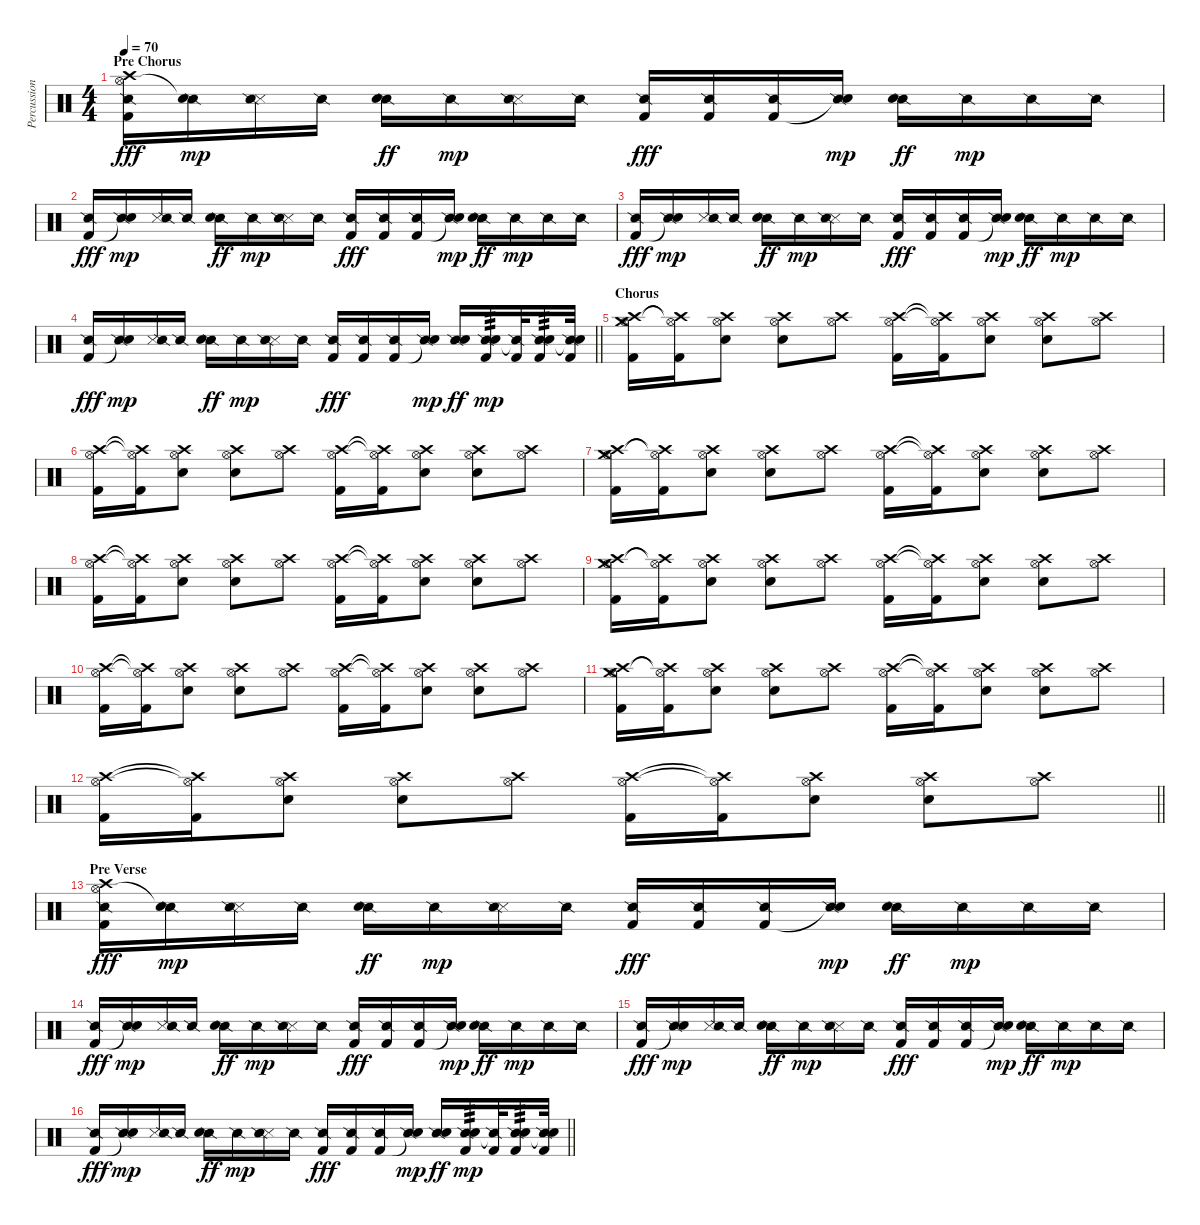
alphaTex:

\track ("Percussion" "Percussion") {instrument percussion}
\staff {score}
\articulation defaults
\ts (4 4)
\section ("" "Pre Chorus")
\tempo 70
\clef neutral
\ks c
("Crash high (hit)" "Hi-Hat (open)" "Snare (side stick) 2" "Kick (hit) 2").16{dy fff} ("Snare (side stick) 2" "Snare (hit)"{t}).16{dy mp} ("Snare (side stick) 3" "Snare (side stick) 2").16 "Snare (side stick) 2".16 ("Snare (side stick) 2" "Electric Snare (hit)").16{dy ff} "Snare (side stick) 2".16{dy mp} ("Snare (side stick) 3" "Snare (side stick) 2").16 "Snare (side stick) 2".16 ("Snare (side stick) 2" "Kick (hit) 2").16{dy fff} ("Snare (side stick) 2" "Kick (hit) 2").16 ("Snare (side stick) 2" "Kick (hit) 2").16 ("Snare (side stick) 2" "Snare (hit)"{t}).16{dy mp} ("Snare (side stick) 2" "Electric Snare (hit)").16{dy ff} "Snare (side stick) 2".16{dy mp} "Snare (side stick) 2".16 "Snare (side stick) 2".16 |
("Snare (side stick) 2" "Kick (hit) 2").16{dy fff} ("Snare (side stick) 2" "Snare (hit)"{t}).16{dy mp} ("Snare (side stick) 3" "Snare (side stick) 2").16 "Snare (side stick) 2".16 ("Snare (side stick) 2" "Electric Snare (hit)").16{dy ff} "Snare (side stick) 2".16{dy mp} ("Snare (side stick) 3" "Snare (side stick) 2").16 "Snare (side stick) 2".16 ("Snare (side stick) 2" "Kick (hit) 2").16{dy fff} ("Snare (side stick) 2" "Kick (hit) 2").16 ("Snare (side stick) 2" "Kick (hit) 2").16 ("Snare (side stick) 2" "Snare (hit)"{t}).16{dy mp} ("Snare (side stick) 2" "Electric Snare (hit)").16{dy ff} "Snare (side stick) 2".16{dy mp} "Snare (side stick) 2".16 "Snare (side stick) 2".16 |
("Snare (side stick) 2" "Kick (hit) 2").16{dy fff} ("Snare (side stick) 2" "Snare (hit)"{t}).16{dy mp} ("Snare (side stick) 3" "Snare (side stick) 2").16 "Snare (side stick) 2".16 ("Snare (side stick) 2" "Electric Snare (hit)").16{dy ff} "Snare (side stick) 2".16{dy mp} ("Snare (side stick) 3" "Snare (side stick) 2").16 "Snare (side stick) 2".16 ("Snare (side stick) 2" "Kick (hit) 2").16{dy fff} ("Snare (side stick) 2" "Kick (hit) 2").16 ("Snare (side stick) 2" "Kick (hit) 2").16 ("Snare (side stick) 2" "Snare (hit)"{t}).16{dy mp} ("Snare (side stick) 2" "Electric Snare (hit)").16{dy ff} "Snare (side stick) 2".16{dy mp} "Snare (side stick) 2".16 "Snare (side stick) 2".16 |
\barLineRight lightlight
("Snare (side stick) 2" "Kick (hit) 2").16{dy fff} ("Snare (side stick) 2" "Snare (hit)"{t}).16{dy mp} ("Snare (side stick) 3" "Snare (side stick) 2").16 "Snare (side stick) 2".16 ("Snare (side stick) 2" "Electric Snare (hit)").16{dy ff} "Snare (side stick) 2".16{dy mp} ("Snare (side stick) 3" "Snare (side stick) 2").16 "Snare (side stick) 2".16 ("Snare (side stick) 2" "Kick (hit) 2").16{dy fff} ("Snare (side stick) 2" "Kick (hit) 2").16 ("Snare (side stick) 2" "Kick (hit) 2").16 ("Snare (side stick) 2" "Snare (hit)"{t}).16{dy mp} ("Snare (side stick) 2" "Electric Snare (hit)").16{dy ff} ("Snare (side stick) 2" "Electric Snare (hit)" "Kick (hit) 2").16{tp 3 dy mp} ("Snare (side stick) 2"{t} "Kick (hit) 2").32 ("Snare (side stick) 2" "Electric Snare (hit)" "Kick (hit) 2").16{tp 3} ("Snare (side stick) 2"{t} "Electric Snare (hit)" "Kick (hit) 2").32 |
\section ("" "Chorus")
("Crash medium (hit)" "Crash high (hit)" "Hi-Hat (open)" "Kick (hit) 2").16 ("Crash high (hit)"{t} "Hi-Hat (open)"{t} "Kick (hit) 2").16 ("Crash high (hit)" "Hi-Hat (open)" "Electric Snare (hit)").8 ("Crash high (hit)" "Hi-Hat (open)" "Electric Snare (hit)").8 ("Crash high (hit)" "Hi-Hat (open)").8 ("Crash high (hit)" "Hi-Hat (open)" "Kick (hit) 2").16 ("Crash high (hit)"{t} "Hi-Hat (open)"{t} "Kick (hit) 2").16 ("Crash high (hit)" "Hi-Hat (open)" "Electric Snare (hit)").8 ("Crash high (hit)" "Hi-Hat (open)" "Electric Snare (hit)").8 ("Crash high (hit)" "Hi-Hat (open)").8 |
("Crash high (hit)" "Hi-Hat (open)" "Kick (hit) 2").16 ("Crash high (hit)"{t} "Hi-Hat (open)"{t} "Kick (hit) 2").16 ("Crash high (hit)" "Hi-Hat (open)" "Electric Snare (hit)").8 ("Crash high (hit)" "Hi-Hat (open)" "Electric Snare (hit)").8 ("Crash high (hit)" "Hi-Hat (open)").8 ("Crash high (hit)" "Hi-Hat (open)" "Kick (hit) 2").16 ("Crash high (hit)"{t} "Hi-Hat (open)"{t} "Kick (hit) 2").16 ("Crash high (hit)" "Hi-Hat (open)" "Electric Snare (hit)").8 ("Crash high (hit)" "Hi-Hat (open)" "Electric Snare (hit)").8 ("Crash high (hit)" "Hi-Hat (open)").8 |
("Crash medium (hit)" "Crash high (hit)" "Hi-Hat (open)" "Kick (hit) 2").16 ("Crash high (hit)"{t} "Hi-Hat (open)"{t} "Kick (hit) 2").16 ("Crash high (hit)" "Hi-Hat (open)" "Electric Snare (hit)").8 ("Crash high (hit)" "Hi-Hat (open)" "Electric Snare (hit)").8 ("Crash high (hit)" "Hi-Hat (open)").8 ("Crash high (hit)" "Hi-Hat (open)" "Kick (hit) 2").16 ("Crash high (hit)"{t} "Hi-Hat (open)"{t} "Kick (hit) 2").16 ("Crash high (hit)" "Hi-Hat (open)" "Electric Snare (hit)").8 ("Crash high (hit)" "Hi-Hat (open)" "Electric Snare (hit)").8 ("Crash high (hit)" "Hi-Hat (open)").8 |
("Crash high (hit)" "Hi-Hat (open)" "Kick (hit) 2").16 ("Crash high (hit)"{t} "Hi-Hat (open)"{t} "Kick (hit) 2").16 ("Crash high (hit)" "Hi-Hat (open)" "Electric Snare (hit)").8 ("Crash high (hit)" "Hi-Hat (open)" "Electric Snare (hit)").8 ("Crash high (hit)" "Hi-Hat (open)").8 ("Crash high (hit)" "Hi-Hat (open)" "Kick (hit) 2").16 ("Crash high (hit)"{t} "Hi-Hat (open)"{t} "Kick (hit) 2").16 ("Crash high (hit)" "Hi-Hat (open)" "Electric Snare (hit)").8 ("Crash high (hit)" "Hi-Hat (open)" "Electric Snare (hit)").8 ("Crash high (hit)" "Hi-Hat (open)").8 |
("Crash medium (hit)" "Crash high (hit)" "Hi-Hat (open)" "Kick (hit) 2").16 ("Crash high (hit)"{t} "Hi-Hat (open)"{t} "Kick (hit) 2").16 ("Crash high (hit)" "Hi-Hat (open)" "Electric Snare (hit)").8 ("Crash high (hit)" "Hi-Hat (open)" "Electric Snare (hit)").8 ("Crash high (hit)" "Hi-Hat (open)").8 ("Crash high (hit)" "Hi-Hat (open)" "Kick (hit) 2").16 ("Crash high (hit)"{t} "Hi-Hat (open)"{t} "Kick (hit) 2").16 ("Crash high (hit)" "Hi-Hat (open)" "Electric Snare (hit)").8 ("Crash high (hit)" "Hi-Hat (open)" "Electric Snare (hit)").8 ("Crash high (hit)" "Hi-Hat (open)").8 |
("Crash high (hit)" "Hi-Hat (open)" "Kick (hit) 2").16 ("Crash high (hit)"{t} "Hi-Hat (open)"{t} "Kick (hit) 2").16 ("Crash high (hit)" "Hi-Hat (open)" "Electric Snare (hit)").8 ("Crash high (hit)" "Hi-Hat (open)" "Electric Snare (hit)").8 ("Crash high (hit)" "Hi-Hat (open)").8 ("Crash high (hit)" "Hi-Hat (open)" "Kick (hit) 2").16 ("Crash high (hit)"{t} "Hi-Hat (open)"{t} "Kick (hit) 2").16 ("Crash high (hit)" "Hi-Hat (open)" "Electric Snare (hit)").8 ("Crash high (hit)" "Hi-Hat (open)" "Electric Snare (hit)").8 ("Crash high (hit)" "Hi-Hat (open)").8 |
("Crash medium (hit)" "Crash high (hit)" "Hi-Hat (open)" "Kick (hit) 2").16 ("Crash high (hit)"{t} "Hi-Hat (open)"{t} "Kick (hit) 2").16 ("Crash high (hit)" "Hi-Hat (open)" "Electric Snare (hit)").8 ("Crash high (hit)" "Hi-Hat (open)" "Electric Snare (hit)").8 ("Crash high (hit)" "Hi-Hat (open)").8 ("Crash high (hit)" "Hi-Hat (open)" "Kick (hit) 2").16 ("Crash high (hit)"{t} "Hi-Hat (open)"{t} "Kick (hit) 2").16 ("Crash high (hit)" "Hi-Hat (open)" "Electric Snare (hit)").8 ("Crash high (hit)" "Hi-Hat (open)" "Electric Snare (hit)").8 ("Crash high (hit)" "Hi-Hat (open)").8 |
\barLineRight lightlight
("Crash high (hit)" "Hi-Hat (open)" "Kick (hit) 2").16 ("Crash high (hit)"{t} "Hi-Hat (open)"{t} "Kick (hit) 2").16 ("Crash high (hit)" "Hi-Hat (open)" "Electric Snare (hit)").8 ("Crash high (hit)" "Hi-Hat (open)" "Electric Snare (hit)").8 ("Crash high (hit)" "Hi-Hat (open)").8 ("Crash high (hit)" "Hi-Hat (open)" "Kick (hit) 2").16 ("Crash high (hit)"{t} "Hi-Hat (open)"{t} "Kick (hit) 2").16 ("Crash high (hit)" "Hi-Hat (open)" "Electric Snare (hit)").8 ("Crash high (hit)" "Hi-Hat (open)" "Electric Snare (hit)").8 ("Crash high (hit)" "Hi-Hat (open)").8 |
\section ("" "Pre Verse")
("Crash high (hit)" "Hi-Hat (open)" "Snare (side stick) 2" "Kick (hit) 2").16{dy fff} ("Snare (side stick) 2" "Snare (hit)"{t}).16{dy mp} ("Snare (side stick) 3" "Snare (side stick) 2").16 "Snare (side stick) 2".16 ("Snare (side stick) 2" "Electric Snare (hit)").16{dy ff} "Snare (side stick) 2".16{dy mp} ("Snare (side stick) 3" "Snare (side stick) 2").16 "Snare (side stick) 2".16 ("Snare (side stick) 2" "Kick (hit) 2").16{dy fff} ("Snare (side stick) 2" "Kick (hit) 2").16 ("Snare (side stick) 2" "Kick (hit) 2").16 ("Snare (side stick) 2" "Snare (hit)"{t}).16{dy mp} ("Snare (side stick) 2" "Electric Snare (hit)").16{dy ff} "Snare (side stick) 2".16{dy mp} "Snare (side stick) 2".16 "Snare (side stick) 2".16 |
("Snare (side stick) 2" "Kick (hit) 2").16{dy fff} ("Snare (side stick) 2" "Snare (hit)"{t}).16{dy mp} ("Snare (side stick) 3" "Snare (side stick) 2").16 "Snare (side stick) 2".16 ("Snare (side stick) 2" "Electric Snare (hit)").16{dy ff} "Snare (side stick) 2".16{dy mp} ("Snare (side stick) 3" "Snare (side stick) 2").16 "Snare (side stick) 2".16 ("Snare (side stick) 2" "Kick (hit) 2").16{dy fff} ("Snare (side stick) 2" "Kick (hit) 2").16 ("Snare (side stick) 2" "Kick (hit) 2").16 ("Snare (side stick) 2" "Snare (hit)"{t}).16{dy mp} ("Snare (side stick) 2" "Electric Snare (hit)").16{dy ff} "Snare (side stick) 2".16{dy mp} "Snare (side stick) 2".16 "Snare (side stick) 2".16 |
("Snare (side stick) 2" "Kick (hit) 2").16{dy fff} ("Snare (side stick) 2" "Snare (hit)"{t}).16{dy mp} ("Snare (side stick) 3" "Snare (side stick) 2").16 "Snare (side stick) 2".16 ("Snare (side stick) 2" "Electric Snare (hit)").16{dy ff} "Snare (side stick) 2".16{dy mp} ("Snare (side stick) 3" "Snare (side stick) 2").16 "Snare (side stick) 2".16 ("Snare (side stick) 2" "Kick (hit) 2").16{dy fff} ("Snare (side stick) 2" "Kick (hit) 2").16 ("Snare (side stick) 2" "Kick (hit) 2").16 ("Snare (side stick) 2" "Snare (hit)"{t}).16{dy mp} ("Snare (side stick) 2" "Electric Snare (hit)").16{dy ff} "Snare (side stick) 2".16{dy mp} "Snare (side stick) 2".16 "Snare (side stick) 2".16 |
\barLineRight lightlight
("Snare (side stick) 2" "Kick (hit) 2").16{dy fff} ("Snare (side stick) 2" "Snare (hit)"{t}).16{dy mp} ("Snare (side stick) 3" "Snare (side stick) 2").16 "Snare (side stick) 2".16 ("Snare (side stick) 2" "Electric Snare (hit)").16{dy ff} "Snare (side stick) 2".16{dy mp} ("Snare (side stick) 3" "Snare (side stick) 2").16 "Snare (side stick) 2".16 ("Snare (side stick) 2" "Kick (hit) 2").16{dy fff} ("Snare (side stick) 2" "Kick (hit) 2").16 ("Snare (side stick) 2" "Kick (hit) 2").16 ("Snare (side stick) 2" "Snare (hit)"{t}).16{dy mp} ("Snare (side stick) 2" "Electric Snare (hit)").16{dy ff} ("Snare (side stick) 2" "Electric Snare (hit)" "Kick (hit) 2").16{tp 3 dy mp} ("Snare (side stick) 2"{t} "Kick (hit) 2").32 ("Snare (side stick) 2" "Electric Snare (hit)" "Kick (hit) 2").16{tp 3} ("Snare (side stick) 2"{t} "Electric Snare (hit)" "Kick (hit) 2").32
